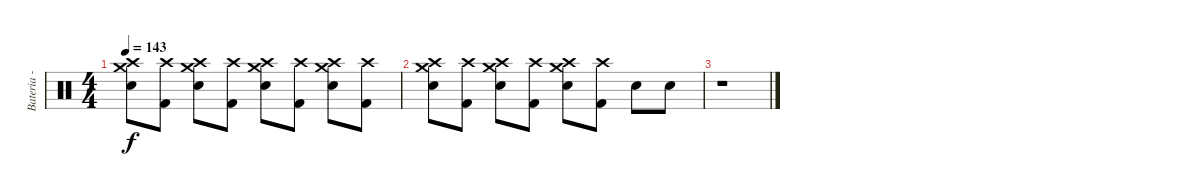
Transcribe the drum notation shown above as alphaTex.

\track ("Bateria - Larzon" "Bateria - ") {instrument percussion}
\staff {score}
\articulation defaults
\ts (4 4)
\tempo 143
\clef neutral
\ks c
("Electric Snare (hit)" "Crash medium (hit)" "Crash high (hit)").8{dy f} ("Kick (hit) 2" "Crash high (hit)").8 ("Electric Snare (hit)" "Crash medium (hit)" "Crash high (hit)").8 ("Kick (hit) 2" "Crash high (hit)").8 ("Electric Snare (hit)" "Crash medium (hit)" "Crash high (hit)").8 ("Kick (hit) 2" "Crash high (hit)").8 ("Electric Snare (hit)" "Crash medium (hit)" "Crash high (hit)").8 ("Kick (hit) 2" "Crash high (hit)").8 |
("Electric Snare (hit)" "Crash medium (hit)" "Crash high (hit)").8 ("Kick (hit) 2" "Crash high (hit)").8 ("Electric Snare (hit)" "Crash medium (hit)" "Crash high (hit)").8 ("Kick (hit) 2" "Crash high (hit)").8 ("Electric Snare (hit)" "Crash medium (hit)" "Crash high (hit)").8 ("Kick (hit) 2" "Crash high (hit)").8 "Electric Snare (hit)".8 "Electric Snare (hit)".8 |
r.1
